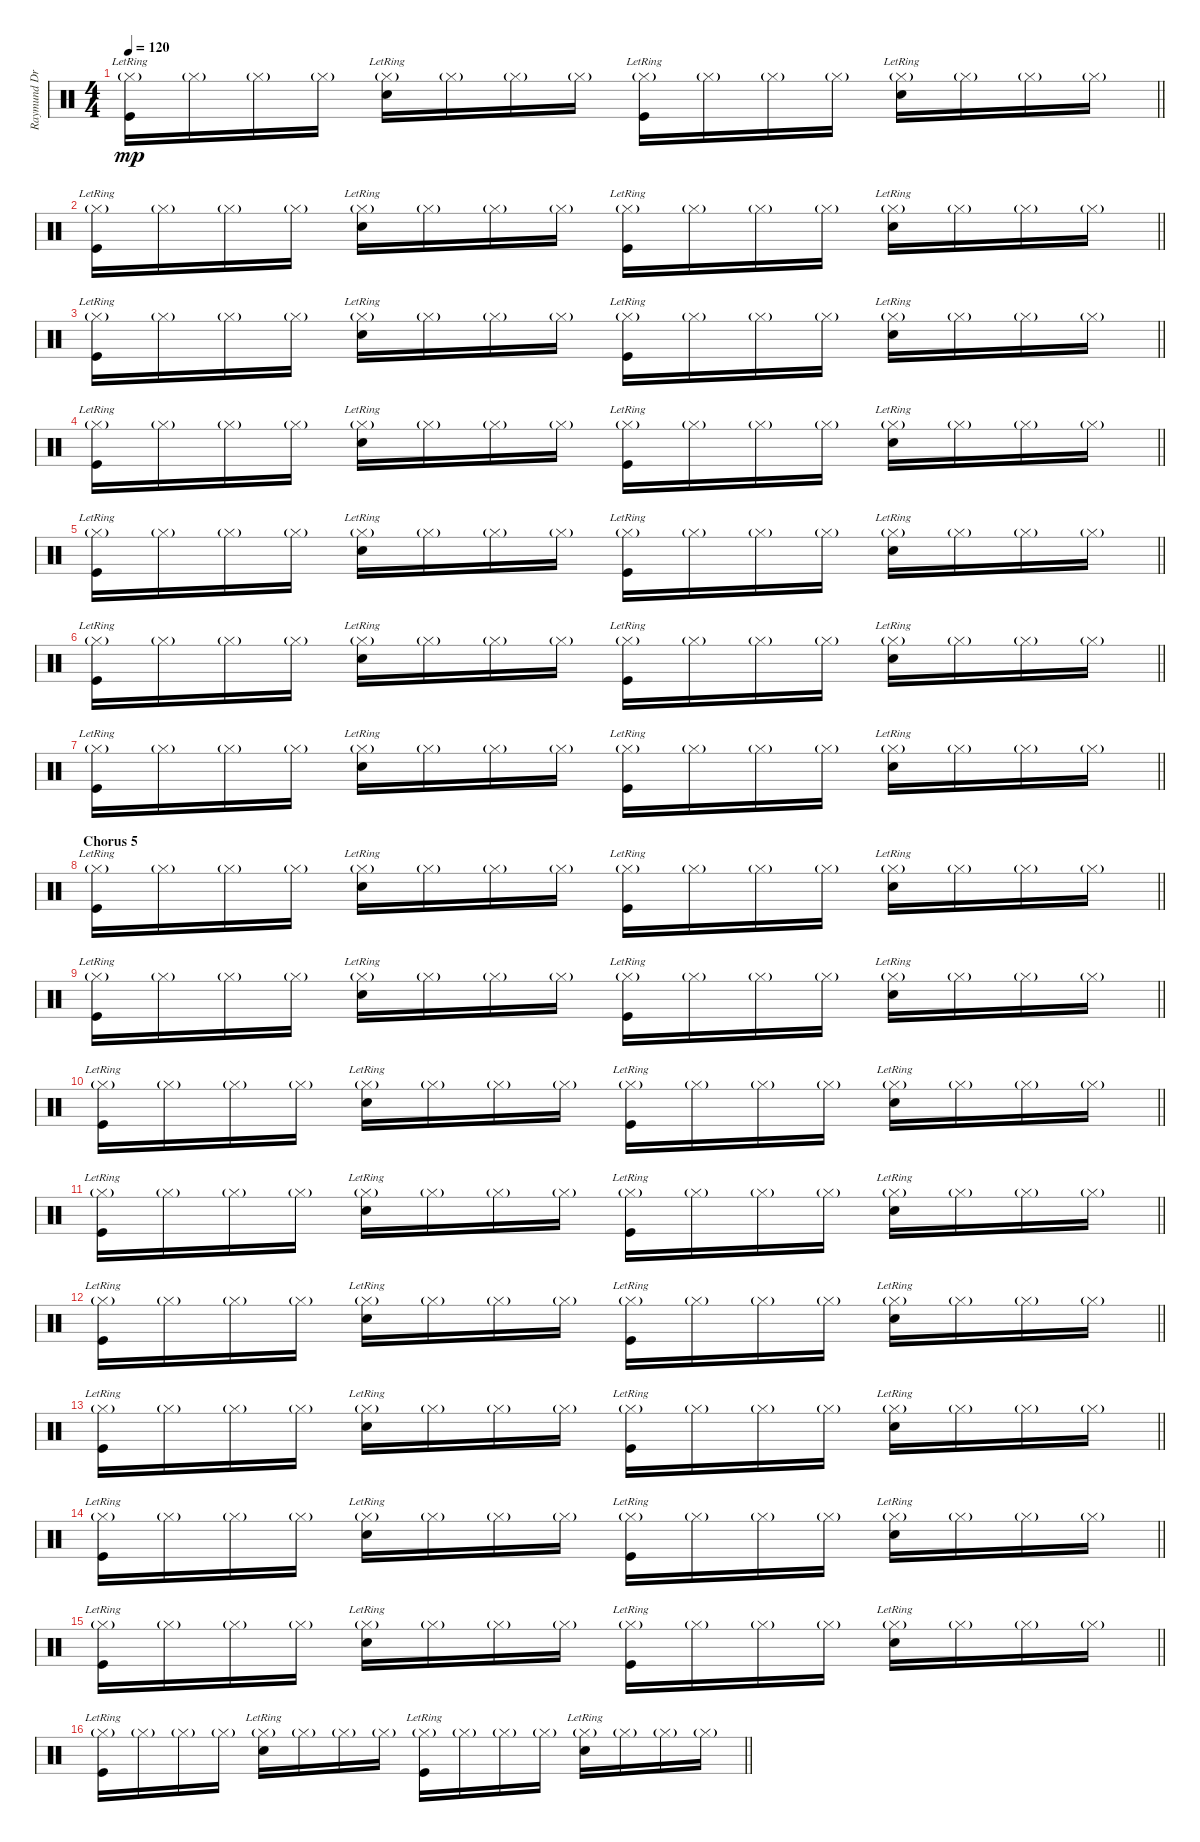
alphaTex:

\track ("Raymund Drums" "Raymund Dr") {instrument percussion}
\staff {score}
\articulation defaults
\ts (4 4)
\tempo 120
\clef neutral
\barLineRight lightlight
\ks c
("Hi-Hat (closed)"{g} "Kick (hit)"{lr}).16{dy mp} "Hi-Hat (closed)"{g}.16 "Hi-Hat (closed)"{g}.16 "Hi-Hat (closed)"{g}.16 ("Hi-Hat (closed)"{g} "Snare (hit) 2"{lr}).16 "Hi-Hat (closed)"{g}.16 "Hi-Hat (closed)"{g}.16 "Hi-Hat (closed)"{g}.16 ("Hi-Hat (closed)"{g} "Kick (hit)"{lr}).16 "Hi-Hat (closed)"{g}.16 "Hi-Hat (closed)"{g}.16 "Hi-Hat (closed)"{g}.16 ("Hi-Hat (closed)"{g} "Snare (hit) 2"{lr}).16 "Hi-Hat (closed)"{g}.16 "Hi-Hat (closed)"{g}.16 "Hi-Hat (closed)"{g}.16 |
\barLineRight lightlight
("Hi-Hat (closed)"{g} "Kick (hit)"{lr}).16 "Hi-Hat (closed)"{g}.16 "Hi-Hat (closed)"{g}.16 "Hi-Hat (closed)"{g}.16 ("Hi-Hat (closed)"{g} "Snare (hit) 2"{lr}).16 "Hi-Hat (closed)"{g}.16 "Hi-Hat (closed)"{g}.16 "Hi-Hat (closed)"{g}.16 ("Hi-Hat (closed)"{g} "Kick (hit)"{lr}).16 "Hi-Hat (closed)"{g}.16 "Hi-Hat (closed)"{g}.16 "Hi-Hat (closed)"{g}.16 ("Hi-Hat (closed)"{g} "Snare (hit) 2"{lr}).16 "Hi-Hat (closed)"{g}.16 "Hi-Hat (closed)"{g}.16 "Hi-Hat (closed)"{g}.16 |
\barLineRight lightlight
("Hi-Hat (closed)"{g} "Kick (hit)"{lr}).16 "Hi-Hat (closed)"{g}.16 "Hi-Hat (closed)"{g}.16 "Hi-Hat (closed)"{g}.16 ("Hi-Hat (closed)"{g} "Snare (hit) 2"{lr}).16 "Hi-Hat (closed)"{g}.16 "Hi-Hat (closed)"{g}.16 "Hi-Hat (closed)"{g}.16 ("Hi-Hat (closed)"{g} "Kick (hit)"{lr}).16 "Hi-Hat (closed)"{g}.16 "Hi-Hat (closed)"{g}.16 "Hi-Hat (closed)"{g}.16 ("Hi-Hat (closed)"{g} "Snare (hit) 2"{lr}).16 "Hi-Hat (closed)"{g}.16 "Hi-Hat (closed)"{g}.16 "Hi-Hat (closed)"{g}.16 |
\barLineRight lightlight
("Hi-Hat (closed)"{g} "Kick (hit)"{lr}).16 "Hi-Hat (closed)"{g}.16 "Hi-Hat (closed)"{g}.16 "Hi-Hat (closed)"{g}.16 ("Hi-Hat (closed)"{g} "Snare (hit) 2"{lr}).16 "Hi-Hat (closed)"{g}.16 "Hi-Hat (closed)"{g}.16 "Hi-Hat (closed)"{g}.16 ("Hi-Hat (closed)"{g} "Kick (hit)"{lr}).16 "Hi-Hat (closed)"{g}.16 "Hi-Hat (closed)"{g}.16 "Hi-Hat (closed)"{g}.16 ("Hi-Hat (closed)"{g} "Snare (hit) 2"{lr}).16 "Hi-Hat (closed)"{g}.16 "Hi-Hat (closed)"{g}.16 "Hi-Hat (closed)"{g}.16 |
\barLineRight lightlight
("Hi-Hat (closed)"{g} "Kick (hit)"{lr}).16 "Hi-Hat (closed)"{g}.16 "Hi-Hat (closed)"{g}.16 "Hi-Hat (closed)"{g}.16 ("Hi-Hat (closed)"{g} "Snare (hit) 2"{lr}).16 "Hi-Hat (closed)"{g}.16 "Hi-Hat (closed)"{g}.16 "Hi-Hat (closed)"{g}.16 ("Hi-Hat (closed)"{g} "Kick (hit)"{lr}).16 "Hi-Hat (closed)"{g}.16 "Hi-Hat (closed)"{g}.16 "Hi-Hat (closed)"{g}.16 ("Hi-Hat (closed)"{g} "Snare (hit) 2"{lr}).16 "Hi-Hat (closed)"{g}.16 "Hi-Hat (closed)"{g}.16 "Hi-Hat (closed)"{g}.16 |
\barLineRight lightlight
("Hi-Hat (closed)"{g} "Kick (hit)"{lr}).16 "Hi-Hat (closed)"{g}.16 "Hi-Hat (closed)"{g}.16 "Hi-Hat (closed)"{g}.16 ("Hi-Hat (closed)"{g} "Snare (hit) 2"{lr}).16 "Hi-Hat (closed)"{g}.16 "Hi-Hat (closed)"{g}.16 "Hi-Hat (closed)"{g}.16 ("Hi-Hat (closed)"{g} "Kick (hit)"{lr}).16 "Hi-Hat (closed)"{g}.16 "Hi-Hat (closed)"{g}.16 "Hi-Hat (closed)"{g}.16 ("Hi-Hat (closed)"{g} "Snare (hit) 2"{lr}).16 "Hi-Hat (closed)"{g}.16 "Hi-Hat (closed)"{g}.16 "Hi-Hat (closed)"{g}.16 |
\barLineRight lightlight
("Hi-Hat (closed)"{g} "Kick (hit)"{lr}).16 "Hi-Hat (closed)"{g}.16 "Hi-Hat (closed)"{g}.16 "Hi-Hat (closed)"{g}.16 ("Hi-Hat (closed)"{g} "Snare (hit) 2"{lr}).16 "Hi-Hat (closed)"{g}.16 "Hi-Hat (closed)"{g}.16 "Hi-Hat (closed)"{g}.16 ("Hi-Hat (closed)"{g} "Kick (hit)"{lr}).16 "Hi-Hat (closed)"{g}.16 "Hi-Hat (closed)"{g}.16 "Hi-Hat (closed)"{g}.16 ("Hi-Hat (closed)"{g} "Snare (hit) 2"{lr}).16 "Hi-Hat (closed)"{g}.16 "Hi-Hat (closed)"{g}.16 "Hi-Hat (closed)"{g}.16 |
\section ("" "Chorus 5")
\barLineRight lightlight
("Hi-Hat (closed)"{g} "Kick (hit)"{lr}).16 "Hi-Hat (closed)"{g}.16 "Hi-Hat (closed)"{g}.16 "Hi-Hat (closed)"{g}.16 ("Hi-Hat (closed)"{g} "Snare (hit) 2"{lr}).16 "Hi-Hat (closed)"{g}.16 "Hi-Hat (closed)"{g}.16 "Hi-Hat (closed)"{g}.16 ("Hi-Hat (closed)"{g} "Kick (hit)"{lr}).16 "Hi-Hat (closed)"{g}.16 "Hi-Hat (closed)"{g}.16 "Hi-Hat (closed)"{g}.16 ("Hi-Hat (closed)"{g} "Snare (hit) 2"{lr}).16 "Hi-Hat (closed)"{g}.16 "Hi-Hat (closed)"{g}.16 "Hi-Hat (closed)"{g}.16 |
\barLineRight lightlight
("Hi-Hat (closed)"{g} "Kick (hit)"{lr}).16 "Hi-Hat (closed)"{g}.16 "Hi-Hat (closed)"{g}.16 "Hi-Hat (closed)"{g}.16 ("Hi-Hat (closed)"{g} "Snare (hit) 2"{lr}).16 "Hi-Hat (closed)"{g}.16 "Hi-Hat (closed)"{g}.16 "Hi-Hat (closed)"{g}.16 ("Hi-Hat (closed)"{g} "Kick (hit)"{lr}).16 "Hi-Hat (closed)"{g}.16 "Hi-Hat (closed)"{g}.16 "Hi-Hat (closed)"{g}.16 ("Hi-Hat (closed)"{g} "Snare (hit) 2"{lr}).16 "Hi-Hat (closed)"{g}.16 "Hi-Hat (closed)"{g}.16 "Hi-Hat (closed)"{g}.16 |
\barLineRight lightlight
("Hi-Hat (closed)"{g} "Kick (hit)"{lr}).16 "Hi-Hat (closed)"{g}.16 "Hi-Hat (closed)"{g}.16 "Hi-Hat (closed)"{g}.16 ("Hi-Hat (closed)"{g} "Snare (hit) 2"{lr}).16 "Hi-Hat (closed)"{g}.16 "Hi-Hat (closed)"{g}.16 "Hi-Hat (closed)"{g}.16 ("Hi-Hat (closed)"{g} "Kick (hit)"{lr}).16 "Hi-Hat (closed)"{g}.16 "Hi-Hat (closed)"{g}.16 "Hi-Hat (closed)"{g}.16 ("Hi-Hat (closed)"{g} "Snare (hit) 2"{lr}).16 "Hi-Hat (closed)"{g}.16 "Hi-Hat (closed)"{g}.16 "Hi-Hat (closed)"{g}.16 |
\barLineRight lightlight
("Hi-Hat (closed)"{g} "Kick (hit)"{lr}).16 "Hi-Hat (closed)"{g}.16 "Hi-Hat (closed)"{g}.16 "Hi-Hat (closed)"{g}.16 ("Hi-Hat (closed)"{g} "Snare (hit) 2"{lr}).16 "Hi-Hat (closed)"{g}.16 "Hi-Hat (closed)"{g}.16 "Hi-Hat (closed)"{g}.16 ("Hi-Hat (closed)"{g} "Kick (hit)"{lr}).16 "Hi-Hat (closed)"{g}.16 "Hi-Hat (closed)"{g}.16 "Hi-Hat (closed)"{g}.16 ("Hi-Hat (closed)"{g} "Snare (hit) 2"{lr}).16 "Hi-Hat (closed)"{g}.16 "Hi-Hat (closed)"{g}.16 "Hi-Hat (closed)"{g}.16 |
\barLineRight lightlight
("Hi-Hat (closed)"{g} "Kick (hit)"{lr}).16 "Hi-Hat (closed)"{g}.16 "Hi-Hat (closed)"{g}.16 "Hi-Hat (closed)"{g}.16 ("Hi-Hat (closed)"{g} "Snare (hit) 2"{lr}).16 "Hi-Hat (closed)"{g}.16 "Hi-Hat (closed)"{g}.16 "Hi-Hat (closed)"{g}.16 ("Hi-Hat (closed)"{g} "Kick (hit)"{lr}).16 "Hi-Hat (closed)"{g}.16 "Hi-Hat (closed)"{g}.16 "Hi-Hat (closed)"{g}.16 ("Hi-Hat (closed)"{g} "Snare (hit) 2"{lr}).16 "Hi-Hat (closed)"{g}.16 "Hi-Hat (closed)"{g}.16 "Hi-Hat (closed)"{g}.16 |
\barLineRight lightlight
("Hi-Hat (closed)"{g} "Kick (hit)"{lr}).16 "Hi-Hat (closed)"{g}.16 "Hi-Hat (closed)"{g}.16 "Hi-Hat (closed)"{g}.16 ("Hi-Hat (closed)"{g} "Snare (hit) 2"{lr}).16 "Hi-Hat (closed)"{g}.16 "Hi-Hat (closed)"{g}.16 "Hi-Hat (closed)"{g}.16 ("Hi-Hat (closed)"{g} "Kick (hit)"{lr}).16 "Hi-Hat (closed)"{g}.16 "Hi-Hat (closed)"{g}.16 "Hi-Hat (closed)"{g}.16 ("Hi-Hat (closed)"{g} "Snare (hit) 2"{lr}).16 "Hi-Hat (closed)"{g}.16 "Hi-Hat (closed)"{g}.16 "Hi-Hat (closed)"{g}.16 |
\barLineRight lightlight
("Hi-Hat (closed)"{g} "Kick (hit)"{lr}).16 "Hi-Hat (closed)"{g}.16 "Hi-Hat (closed)"{g}.16 "Hi-Hat (closed)"{g}.16 ("Hi-Hat (closed)"{g} "Snare (hit) 2"{lr}).16 "Hi-Hat (closed)"{g}.16 "Hi-Hat (closed)"{g}.16 "Hi-Hat (closed)"{g}.16 ("Hi-Hat (closed)"{g} "Kick (hit)"{lr}).16 "Hi-Hat (closed)"{g}.16 "Hi-Hat (closed)"{g}.16 "Hi-Hat (closed)"{g}.16 ("Hi-Hat (closed)"{g} "Snare (hit) 2"{lr}).16 "Hi-Hat (closed)"{g}.16 "Hi-Hat (closed)"{g}.16 "Hi-Hat (closed)"{g}.16 |
\barLineRight lightlight
("Hi-Hat (closed)"{g} "Kick (hit)"{lr}).16 "Hi-Hat (closed)"{g}.16 "Hi-Hat (closed)"{g}.16 "Hi-Hat (closed)"{g}.16 ("Hi-Hat (closed)"{g} "Snare (hit) 2"{lr}).16 "Hi-Hat (closed)"{g}.16 "Hi-Hat (closed)"{g}.16 "Hi-Hat (closed)"{g}.16 ("Hi-Hat (closed)"{g} "Kick (hit)"{lr}).16 "Hi-Hat (closed)"{g}.16 "Hi-Hat (closed)"{g}.16 "Hi-Hat (closed)"{g}.16 ("Hi-Hat (closed)"{g} "Snare (hit) 2"{lr}).16 "Hi-Hat (closed)"{g}.16 "Hi-Hat (closed)"{g}.16 "Hi-Hat (closed)"{g}.16 |
\barLineRight lightlight
("Hi-Hat (closed)"{g} "Kick (hit)"{lr}).16 "Hi-Hat (closed)"{g}.16 "Hi-Hat (closed)"{g}.16 "Hi-Hat (closed)"{g}.16 ("Hi-Hat (closed)"{g} "Snare (hit) 2"{lr}).16 "Hi-Hat (closed)"{g}.16 "Hi-Hat (closed)"{g}.16 "Hi-Hat (closed)"{g}.16 ("Hi-Hat (closed)"{g} "Kick (hit)"{lr}).16 "Hi-Hat (closed)"{g}.16 "Hi-Hat (closed)"{g}.16 "Hi-Hat (closed)"{g}.16 ("Hi-Hat (closed)"{g} "Snare (hit) 2"{lr}).16 "Hi-Hat (closed)"{g}.16 "Hi-Hat (closed)"{g}.16 "Hi-Hat (closed)"{g}.16
